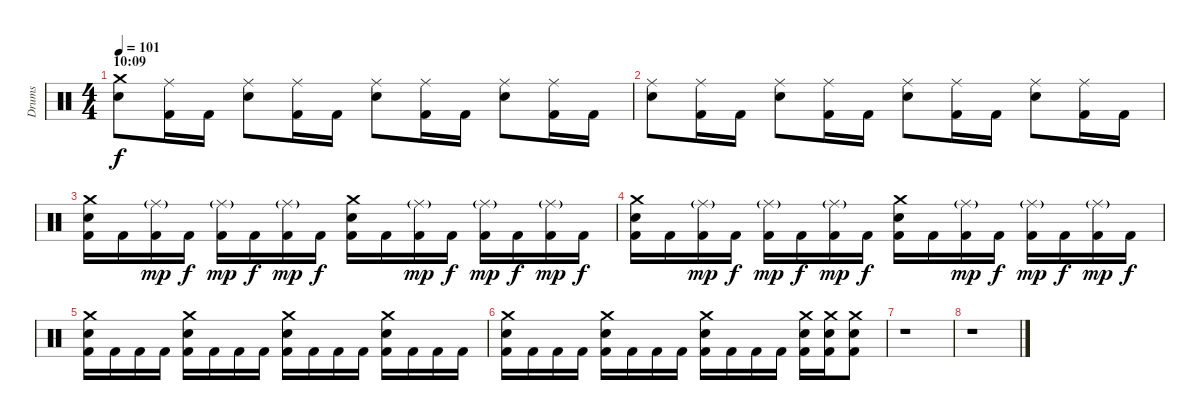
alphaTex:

\track ("Drums" "Drums") {instrument percussion}
\staff {score}
\articulation defaults
\ts (4 4)
\section ("" "10:09")
\tempo 101
\clef neutral
\ks c
("Crash medium (hit)" "Snare (hit) 2").8{dy f} ("Ride (middle)" "Kick (hit) 2").16 "Kick (hit) 2".16 ("Ride (middle)" "Snare (hit) 2").8 ("Ride (middle)" "Kick (hit) 2").16 "Kick (hit) 2".16 ("Ride (middle)" "Snare (hit) 2").8 ("Ride (middle)" "Kick (hit) 2").16 "Kick (hit) 2".16 ("Ride (middle)" "Snare (hit) 2").8 ("Ride (middle)" "Kick (hit) 2").16 "Kick (hit) 2".16 |
("Ride (middle)" "Snare (hit) 2").8 ("Ride (middle)" "Kick (hit) 2").16 "Kick (hit) 2".16 ("Ride (middle)" "Snare (hit) 2").8 ("Ride (middle)" "Kick (hit) 2").16 "Kick (hit) 2".16 ("Ride (middle)" "Snare (hit) 2").8 ("Ride (middle)" "Kick (hit) 2").16 "Kick (hit) 2".16 ("Ride (middle)" "Snare (hit) 2").8 ("Ride (middle)" "Kick (hit) 2").16 "Kick (hit) 2".16 |
("Crash medium (hit)" "Snare (hit) 2" "Kick (hit) 2").16 "Kick (hit) 2".16 ("Ride (middle)"{g} "Kick (hit) 2").16{dy mp} "Kick (hit) 2".16{dy f} ("Ride (middle)"{g} "Kick (hit) 2").16{dy mp} "Kick (hit) 2".16{dy f} ("Ride (middle)"{g} "Kick (hit) 2").16{dy mp} "Kick (hit) 2".16{dy f} ("Crash medium (hit)" "Snare (hit) 2" "Kick (hit) 2").16 "Kick (hit) 2".16 ("Ride (middle)"{g} "Kick (hit) 2").16{dy mp} "Kick (hit) 2".16{dy f} ("Ride (middle)"{g} "Kick (hit) 2").16{dy mp} "Kick (hit) 2".16{dy f} ("Ride (middle)"{g} "Kick (hit) 2").16{dy mp} "Kick (hit) 2".16{dy f} |
("Crash medium (hit)" "Snare (hit) 2" "Kick (hit) 2").16 "Kick (hit) 2".16 ("Ride (middle)"{g} "Kick (hit) 2").16{dy mp} "Kick (hit) 2".16{dy f} ("Ride (middle)"{g} "Kick (hit) 2").16{dy mp} "Kick (hit) 2".16{dy f} ("Ride (middle)"{g} "Kick (hit) 2").16{dy mp} "Kick (hit) 2".16{dy f} ("Crash medium (hit)" "Snare (hit) 2" "Kick (hit) 2").16 "Kick (hit) 2".16 ("Ride (middle)"{g} "Kick (hit) 2").16{dy mp} "Kick (hit) 2".16{dy f} ("Ride (middle)"{g} "Kick (hit) 2").16{dy mp} "Kick (hit) 2".16{dy f} ("Ride (middle)"{g} "Kick (hit) 2").16{dy mp} "Kick (hit) 2".16{dy f} |
("Crash medium (hit)" "Snare (hit) 2" "Kick (hit) 2").16 "Kick (hit) 2".16 "Kick (hit) 2".16 "Kick (hit) 2".16 ("Crash medium (hit)" "Snare (hit) 2" "Kick (hit) 2").16 "Kick (hit) 2".16 "Kick (hit) 2".16 "Kick (hit) 2".16 ("Crash medium (hit)" "Snare (hit) 2" "Kick (hit) 2").16 "Kick (hit) 2".16 "Kick (hit) 2".16 "Kick (hit) 2".16 ("Crash medium (hit)" "Snare (hit) 2" "Kick (hit) 2").16 "Kick (hit) 2".16 "Kick (hit) 2".16 "Kick (hit) 2".16 |
("Crash medium (hit)" "Snare (hit) 2" "Kick (hit) 2").16 "Kick (hit) 2".16 "Kick (hit) 2".16 "Kick (hit) 2".16 ("Crash medium (hit)" "Snare (hit) 2" "Kick (hit) 2").16 "Kick (hit) 2".16 "Kick (hit) 2".16 "Kick (hit) 2".16 ("Crash medium (hit)" "Snare (hit) 2" "Kick (hit) 2").16 "Kick (hit) 2".16 "Kick (hit) 2".16 "Kick (hit) 2".16 ("Crash medium (hit)" "Snare (hit) 2" "Kick (hit) 2").16 ("Crash medium (hit)" "Snare (hit) 2" "Kick (hit) 2").16 ("Crash medium (hit)" "Snare (hit) 2" "Kick (hit) 2").8 |
r.1 |
r.1
